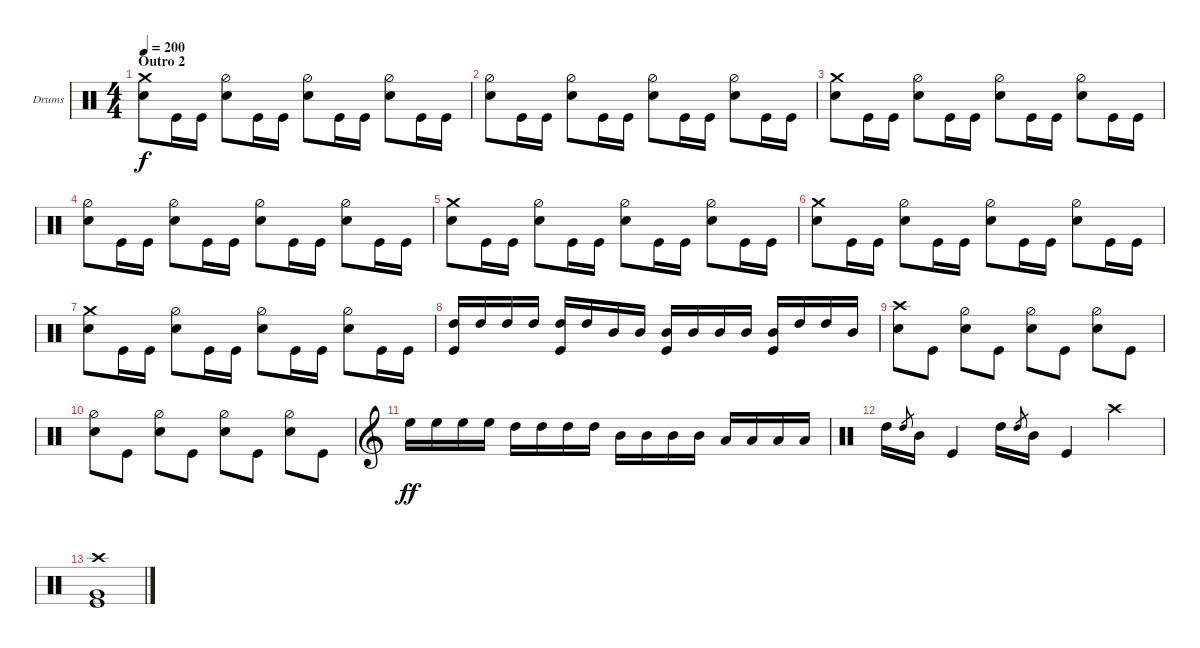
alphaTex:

\defaultSystemsLayout 4
\bracketExtendMode groupsimilarinstruments
\firstSystemTrackNameOrientation horizontal
\otherSystemsTrackNameOrientation horizontal
\track ("Drums" "Drums") {instrument percussion}
\staff {score}
\articulation defaults
\ts (4 4)
\section ("" "Outro 2")
\tempo 200
\clef neutral
\ks c
("Snare (hit) 2" "Crash medium (hit)").8{dy f} "Kick (hit)".16 "Kick (hit)".16 ("Snare (hit) 2" "Hi-Hat (half)").8 "Kick (hit)".16 "Kick (hit)".16 ("Snare (hit) 2" "Hi-Hat (half)").8 "Kick (hit)".16 "Kick (hit)".16 ("Snare (hit) 2" "Hi-Hat (half)").8 "Kick (hit)".16 "Kick (hit)".16 |
("Snare (hit) 2" "Hi-Hat (half)").8 "Kick (hit)".16 "Kick (hit)".16 ("Snare (hit) 2" "Hi-Hat (half)").8 "Kick (hit)".16 "Kick (hit)".16 ("Snare (hit) 2" "Hi-Hat (half)").8 "Kick (hit)".16 "Kick (hit)".16 ("Snare (hit) 2" "Hi-Hat (half)").8 "Kick (hit)".16 "Kick (hit)".16 |
("Snare (hit) 2" "Crash medium (hit)").8 "Kick (hit)".16 "Kick (hit)".16 ("Snare (hit) 2" "Hi-Hat (half)").8 "Kick (hit)".16 "Kick (hit)".16 ("Snare (hit) 2" "Hi-Hat (half)").8 "Kick (hit)".16 "Kick (hit)".16 ("Snare (hit) 2" "Hi-Hat (half)").8 "Kick (hit)".16 "Kick (hit)".16 |
("Snare (hit) 2" "Hi-Hat (half)").8 "Kick (hit)".16 "Kick (hit)".16 ("Snare (hit) 2" "Hi-Hat (half)").8 "Kick (hit)".16 "Kick (hit)".16 ("Snare (hit) 2" "Hi-Hat (half)").8 "Kick (hit)".16 "Kick (hit)".16 ("Snare (hit) 2" "Hi-Hat (half)").8 "Kick (hit)".16 "Kick (hit)".16 |
("Snare (hit) 2" "Crash medium (hit)").8 "Kick (hit)".16 "Kick (hit)".16 ("Snare (hit) 2" "Hi-Hat (half)").8 "Kick (hit)".16 "Kick (hit)".16 ("Snare (hit) 2" "Hi-Hat (half)").8 "Kick (hit)".16 "Kick (hit)".16 ("Snare (hit) 2" "Hi-Hat (half)").8 "Kick (hit)".16 "Kick (hit)".16 |
("Snare (hit) 2" "Crash medium (hit)").8 "Kick (hit)".16 "Kick (hit)".16 ("Snare (hit) 2" "Hi-Hat (half)").8 "Kick (hit)".16 "Kick (hit)".16 ("Snare (hit) 2" "Hi-Hat (half)").8 "Kick (hit)".16 "Kick (hit)".16 ("Snare (hit) 2" "Hi-Hat (half)").8 "Kick (hit)".16 "Kick (hit)".16 |
("Snare (hit) 2" "Crash medium (hit)").8 "Kick (hit)".16 "Kick (hit)".16 ("Snare (hit) 2" "Hi-Hat (half)").8 "Kick (hit)".16 "Kick (hit)".16 ("Snare (hit) 2" "Hi-Hat (half)").8 "Kick (hit)".16 "Kick (hit)".16 ("Snare (hit) 2" "Hi-Hat (half)").8 "Kick (hit)".16 "Kick (hit)".16 |
("High Tom (hit)" "Kick (hit)").16 "High Tom (hit)".16 "High Tom (hit)".16 "High Tom (hit)".16 ("High Tom (hit)" "Kick (hit)").16 "High Tom (hit)".16 "Mid Tom (hit)".16 "Mid Tom (hit)".16 ("Mid Tom (hit)" "Kick (hit)").16 "Mid Tom (hit)".16 "Mid Tom (hit)".16 "Mid Tom (hit)".16 ("Mid Tom (hit)" "Kick (hit)").16 "High Tom (hit)".16 "High Tom (hit)".16 "Mid Tom (hit)".16 |
("Snare (hit) 2" "Crash high (hit)").8 "Kick (hit)".8 ("Snare (hit) 2" "Hi-Hat (half)").8 "Kick (hit)".8 ("Snare (hit) 2" "Hi-Hat (half)").8 "Kick (hit)".8 ("Snare (hit) 2" "Hi-Hat (half)").8 "Kick (hit)".8 |
("Snare (hit) 2" "Hi-Hat (half)").8 "Kick (hit)".8 ("Snare (hit) 2" "Hi-Hat (half)").8 "Kick (hit)".8 ("Snare (hit) 2" "Hi-Hat (half)").8 "Kick (hit)".8 ("Snare (hit) 2" "Hi-Hat (half)").8 "Kick (hit)".8 |
\clef g2 "High Floor Tom (hit)".16{dy ff} "High Floor Tom (hit)".16 "High Floor Tom (hit)".16 "High Floor Tom (hit)".16 "High Tom (hit)".16 "High Tom (hit)".16 "High Tom (hit)".16 "High Tom (hit)".16 "Mid Tom (hit)".16 "Mid Tom (hit)".16 "Mid Tom (hit)".16 "Mid Tom (hit)".16 "Low Tom (hit)".16 "Low Tom (hit)".16 "Low Tom (hit)".16 "Low Tom (hit)".16
|
\clef neutral "High Tom (hit)".16 "High Tom (hit)".8{gr} "Mid Tom (hit)".16 "Kick (hit)".4 "High Tom (hit)".16 "High Tom (hit)".8{gr} "Mid Tom (hit)".16 "Kick (hit)".4 "Crash high (hit)".4
|
("Kick (hit)" "Very Low Tom (hit)" "Crash high (hit)").1
